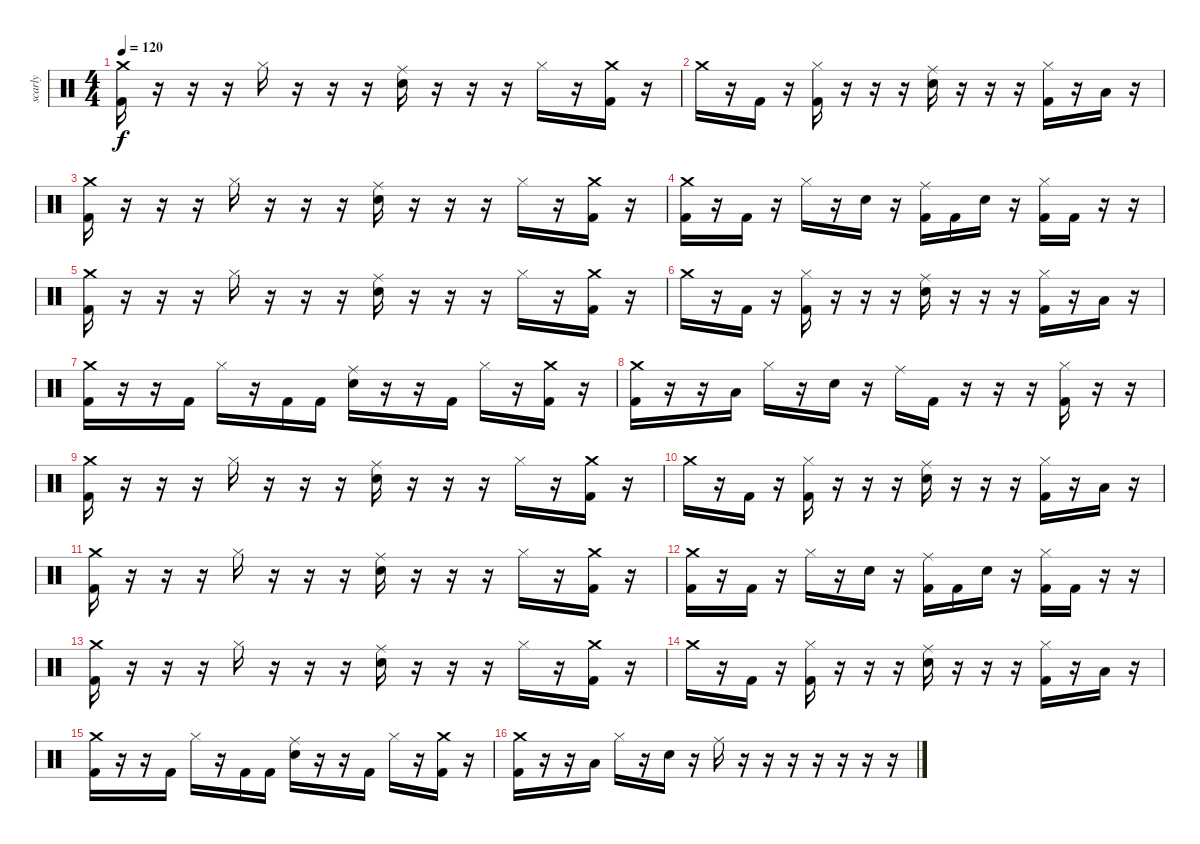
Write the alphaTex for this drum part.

\track ("scarly" "scarly") {instrument percussion}
\staff {score}
\articulation defaults
\ts (4 4)
\tempo 120
\clef neutral
\ks c
("Kick (hit) 2" "Crash medium (hit)").16{dy f} r.16 r.16 r.16 "Hi-Hat (closed)".16 r.16 r.16 r.16 ("Snare (hit) 2" "Ride (middle)").16 r.16 r.16 r.16 "Hi-Hat (closed)".16 r.16 ("Kick (hit) 2" "Crash medium (hit)").16 r.16 |
"Crash medium (hit)".16 r.16 "Kick (hit) 2".16 r.16 ("Kick (hit) 2" "Hi-Hat (closed)").16 r.16 r.16 r.16 ("Snare (hit) 2" "Ride (middle)").16 r.16 r.16 r.16 ("Kick (hit) 2" "Hi-Hat (closed)").16 r.16 "Low Floor Tom (hit)".16 r.16 |
("Kick (hit) 2" "Crash medium (hit)").16 r.16 r.16 r.16 "Hi-Hat (closed)".16 r.16 r.16 r.16 ("Snare (hit) 2" "Ride (middle)").16 r.16 r.16 r.16 "Hi-Hat (closed)".16 r.16 ("Kick (hit) 2" "Crash medium (hit)").16 r.16 |
("Kick (hit) 2" "Crash medium (hit)").16 r.16 "Kick (hit) 2".16 r.16 "Hi-Hat (closed)".16 r.16 "Snare (hit) 2".16 r.16 ("Kick (hit) 2" "Ride (middle)").16 "Kick (hit) 2".16 "Snare (hit) 2".16 r.16 ("Kick (hit) 2" "Hi-Hat (closed)").16 "Kick (hit) 2".16 r.16 r.16 |
("Kick (hit) 2" "Crash medium (hit)").16 r.16 r.16 r.16 "Hi-Hat (closed)".16 r.16 r.16 r.16 ("Snare (hit) 2" "Ride (middle)").16 r.16 r.16 r.16 "Hi-Hat (closed)".16 r.16 ("Kick (hit) 2" "Crash medium (hit)").16 r.16 |
"Crash medium (hit)".16 r.16 "Kick (hit) 2".16 r.16 ("Kick (hit) 2" "Hi-Hat (closed)").16 r.16 r.16 r.16 ("Snare (hit) 2" "Ride (middle)").16 r.16 r.16 r.16 ("Kick (hit) 2" "Hi-Hat (closed)").16 r.16 "Low Floor Tom (hit)".16 r.16 |
("Kick (hit) 2" "Crash medium (hit)").16 r.16 r.16 "Kick (hit) 2".16 "Hi-Hat (closed)".16 r.16 "Kick (hit) 2".16 "Kick (hit) 2".16 ("Snare (hit) 2" "Ride (middle)").16 r.16 r.16 "Kick (hit) 2".16 "Hi-Hat (closed)".16 r.16 ("Kick (hit) 2" "Crash medium (hit)").16 r.16 |
("Kick (hit) 2" "Crash medium (hit)").16 r.16 r.16 "Low Floor Tom (hit)".16 "Hi-Hat (closed)".16 r.16 "Snare (hit) 2".16 r.16 "Ride (middle)".16 "Kick (hit) 2".16 r.16 r.16 r.16 ("Kick (hit) 2" "Hi-Hat (closed)").16 r.16 r.16 |
("Kick (hit) 2" "Crash medium (hit)").16 r.16 r.16 r.16 "Hi-Hat (closed)".16 r.16 r.16 r.16 ("Snare (hit) 2" "Ride (middle)").16 r.16 r.16 r.16 "Hi-Hat (closed)".16 r.16 ("Kick (hit) 2" "Crash medium (hit)").16 r.16 |
"Crash medium (hit)".16 r.16 "Kick (hit) 2".16 r.16 ("Kick (hit) 2" "Hi-Hat (closed)").16 r.16 r.16 r.16 ("Snare (hit) 2" "Ride (middle)").16 r.16 r.16 r.16 ("Kick (hit) 2" "Hi-Hat (closed)").16 r.16 "Low Floor Tom (hit)".16 r.16 |
("Kick (hit) 2" "Crash medium (hit)").16 r.16 r.16 r.16 "Hi-Hat (closed)".16 r.16 r.16 r.16 ("Snare (hit) 2" "Ride (middle)").16 r.16 r.16 r.16 "Hi-Hat (closed)".16 r.16 ("Kick (hit) 2" "Crash medium (hit)").16 r.16 |
("Kick (hit) 2" "Crash medium (hit)").16 r.16 "Kick (hit) 2".16 r.16 "Hi-Hat (closed)".16 r.16 "Snare (hit) 2".16 r.16 ("Kick (hit) 2" "Ride (middle)").16 "Kick (hit) 2".16 "Snare (hit) 2".16 r.16 ("Kick (hit) 2" "Hi-Hat (closed)").16 "Kick (hit) 2".16 r.16 r.16 |
("Kick (hit) 2" "Crash medium (hit)").16 r.16 r.16 r.16 "Hi-Hat (closed)".16 r.16 r.16 r.16 ("Snare (hit) 2" "Ride (middle)").16 r.16 r.16 r.16 "Hi-Hat (closed)".16 r.16 ("Kick (hit) 2" "Crash medium (hit)").16 r.16 |
"Crash medium (hit)".16 r.16 "Kick (hit) 2".16 r.16 ("Kick (hit) 2" "Hi-Hat (closed)").16 r.16 r.16 r.16 ("Snare (hit) 2" "Ride (middle)").16 r.16 r.16 r.16 ("Kick (hit) 2" "Hi-Hat (closed)").16 r.16 "Low Floor Tom (hit)".16 r.16 |
("Kick (hit) 2" "Crash medium (hit)").16 r.16 r.16 "Kick (hit) 2".16 "Hi-Hat (closed)".16 r.16 "Kick (hit) 2".16 "Kick (hit) 2".16 ("Snare (hit) 2" "Ride (middle)").16 r.16 r.16 "Kick (hit) 2".16 "Hi-Hat (closed)".16 r.16 ("Kick (hit) 2" "Crash medium (hit)").16 r.16 |
("Kick (hit) 2" "Crash medium (hit)").16 r.16 r.16 "Low Floor Tom (hit)".16 "Hi-Hat (closed)".16 r.16 "Snare (hit) 2".16 r.16 "Ride (middle)".16 r.16 r.16 r.16 r.16 r.16 r.16 r.16
